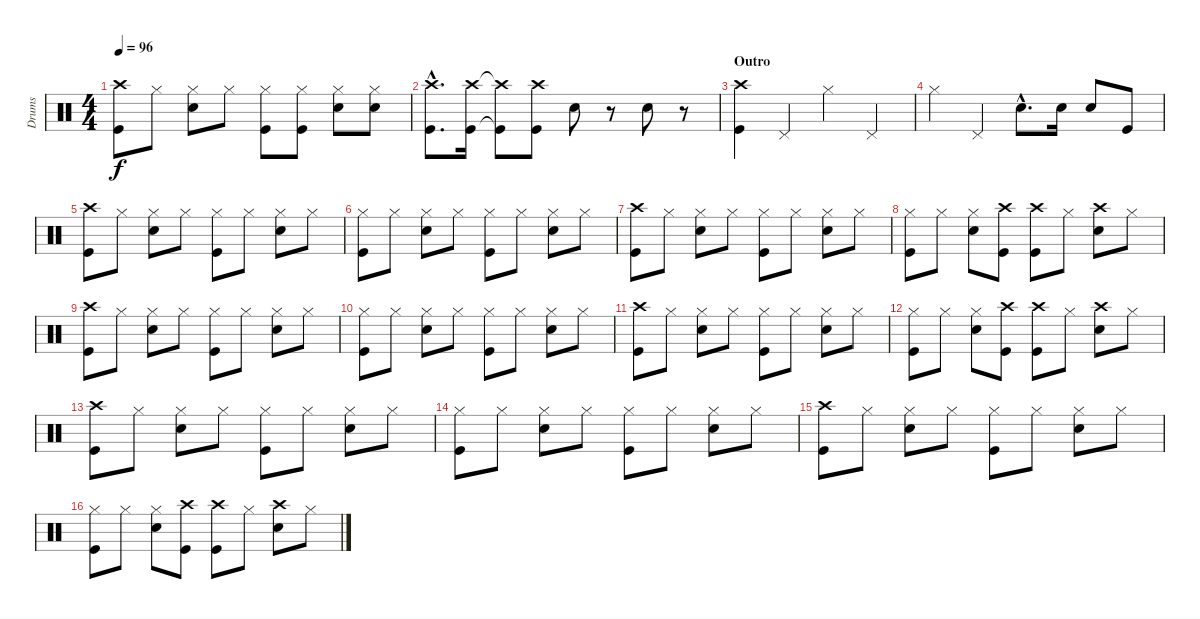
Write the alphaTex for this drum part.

\track ("Drums" "Drums") {instrument percussion}
\staff {score}
\articulation defaults
\ts (4 4)
\tempo 96
\clef neutral
\ks c
("Crash high (hit)" "Kick (hit)").8{dy f} "Hi-Hat (closed)".8 ("Hi-Hat (closed)" "Electric Snare (hit)").8 "Hi-Hat (closed)".8 ("Hi-Hat (closed)" "Kick (hit)").8 ("Hi-Hat (closed)" "Kick (hit)").8 ("Hi-Hat (closed)" "Electric Snare (hit)").8 ("Hi-Hat (closed)" "Electric Snare (hit)").8 |
("Crash high (hit)"{hac} "Kick (hit)"{hac}).8{d} ("Crash high (hit)" "Kick (hit)").16 ("Crash high (hit)"{t} "Kick (hit)"{t}).8 ("Crash high (hit)" "Kick (hit)").8 "Electric Snare (hit)".8 r.8 "Electric Snare (hit)".8 r.8 |
\section ("" "Outro")
("Crash high (hit)" "Kick (hit)").4 "Pedal Hi-Hat (hit)".4 "Hi-Hat (closed)".4 "Pedal Hi-Hat (hit)".4 |
"Hi-Hat (closed)".4 "Pedal Hi-Hat (hit)".4 "Electric Snare (hit)"{hac}.8{d} "Electric Snare (hit)".16 "Electric Snare (hit)".8 "Kick (hit)".8 |
("Crash high (hit)" "Kick (hit)").8 "Hi-Hat (closed)".8 ("Hi-Hat (closed)" "Electric Snare (hit)").8 "Hi-Hat (closed)".8 ("Hi-Hat (closed)" "Kick (hit)").8 "Hi-Hat (closed)".8 ("Hi-Hat (closed)" "Electric Snare (hit)").8 "Hi-Hat (closed)".8 |
("Hi-Hat (closed)" "Kick (hit)").8 "Hi-Hat (closed)".8 ("Hi-Hat (closed)" "Electric Snare (hit)").8 "Hi-Hat (closed)".8 ("Hi-Hat (closed)" "Kick (hit)").8 "Hi-Hat (closed)".8 ("Hi-Hat (closed)" "Electric Snare (hit)").8 "Hi-Hat (closed)".8 |
("Crash high (hit)" "Kick (hit)").8 "Hi-Hat (closed)".8 ("Hi-Hat (closed)" "Electric Snare (hit)").8 "Hi-Hat (closed)".8 ("Hi-Hat (closed)" "Kick (hit)").8 "Hi-Hat (closed)".8 ("Hi-Hat (closed)" "Electric Snare (hit)").8 "Hi-Hat (closed)".8 |
("Hi-Hat (closed)" "Kick (hit)").8 "Hi-Hat (closed)".8 ("Hi-Hat (closed)" "Electric Snare (hit)").8 ("Crash high (hit)" "Kick (hit)").8 ("Crash high (hit)" "Kick (hit)").8 "Hi-Hat (closed)".8 ("Crash high (hit)" "Electric Snare (hit)").8 "Hi-Hat (closed)".8 |
("Crash high (hit)" "Kick (hit)").8 "Hi-Hat (closed)".8 ("Hi-Hat (closed)" "Electric Snare (hit)").8 "Hi-Hat (closed)".8 ("Hi-Hat (closed)" "Kick (hit)").8 "Hi-Hat (closed)".8 ("Hi-Hat (closed)" "Electric Snare (hit)").8 "Hi-Hat (closed)".8 |
("Hi-Hat (closed)" "Kick (hit)").8 "Hi-Hat (closed)".8 ("Hi-Hat (closed)" "Electric Snare (hit)").8 "Hi-Hat (closed)".8 ("Hi-Hat (closed)" "Kick (hit)").8 "Hi-Hat (closed)".8 ("Hi-Hat (closed)" "Electric Snare (hit)").8 "Hi-Hat (closed)".8 |
("Crash high (hit)" "Kick (hit)").8 "Hi-Hat (closed)".8 ("Hi-Hat (closed)" "Electric Snare (hit)").8 "Hi-Hat (closed)".8 ("Hi-Hat (closed)" "Kick (hit)").8 "Hi-Hat (closed)".8 ("Hi-Hat (closed)" "Electric Snare (hit)").8 "Hi-Hat (closed)".8 |
("Hi-Hat (closed)" "Kick (hit)").8 "Hi-Hat (closed)".8 ("Hi-Hat (closed)" "Electric Snare (hit)").8 ("Crash high (hit)" "Kick (hit)").8 ("Crash high (hit)" "Kick (hit)").8 "Hi-Hat (closed)".8 ("Crash high (hit)" "Electric Snare (hit)").8 "Hi-Hat (closed)".8 |
("Crash high (hit)" "Kick (hit)").8 "Hi-Hat (closed)".8 ("Hi-Hat (closed)" "Electric Snare (hit)").8 "Hi-Hat (closed)".8 ("Hi-Hat (closed)" "Kick (hit)").8 "Hi-Hat (closed)".8 ("Hi-Hat (closed)" "Electric Snare (hit)").8 "Hi-Hat (closed)".8 |
("Hi-Hat (closed)" "Kick (hit)").8 "Hi-Hat (closed)".8 ("Hi-Hat (closed)" "Electric Snare (hit)").8 "Hi-Hat (closed)".8 ("Hi-Hat (closed)" "Kick (hit)").8 "Hi-Hat (closed)".8 ("Hi-Hat (closed)" "Electric Snare (hit)").8 "Hi-Hat (closed)".8 |
("Crash high (hit)" "Kick (hit)").8 "Hi-Hat (closed)".8 ("Hi-Hat (closed)" "Electric Snare (hit)").8 "Hi-Hat (closed)".8 ("Hi-Hat (closed)" "Kick (hit)").8 "Hi-Hat (closed)".8 ("Hi-Hat (closed)" "Electric Snare (hit)").8 "Hi-Hat (closed)".8 |
("Hi-Hat (closed)" "Kick (hit)").8 "Hi-Hat (closed)".8 ("Hi-Hat (closed)" "Electric Snare (hit)").8 ("Crash high (hit)" "Kick (hit)").8 ("Crash high (hit)" "Kick (hit)").8 "Hi-Hat (closed)".8 ("Crash high (hit)" "Electric Snare (hit)").8 "Hi-Hat (closed)".8
